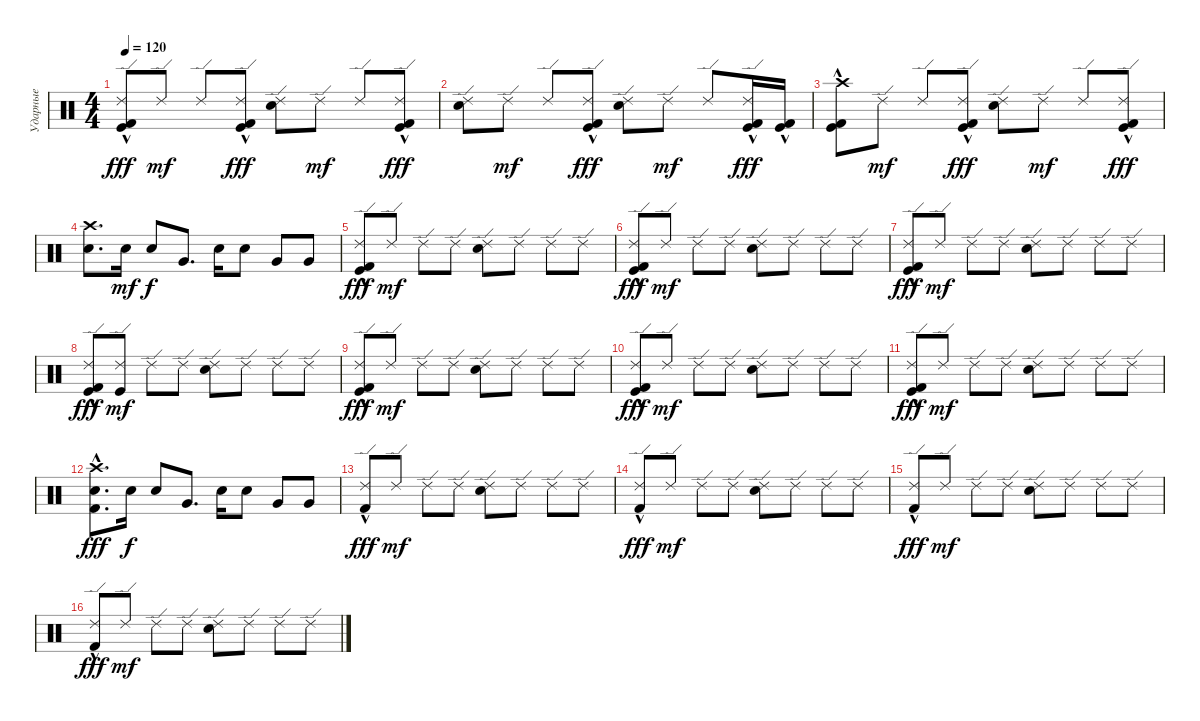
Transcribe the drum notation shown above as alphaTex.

\track ("Ударные" "Ударные") {instrument percussion}
\staff {score}
\articulation defaults
\ts (4 4)
\tempo 120
\clef neutral
\ks c
("Ride (edge) 2" "Kick (hit)"{hac} "Kick (hit) 2"{hac}).8{dy fff} "Ride (edge) 2".8{dy mf} "Ride (edge) 2".8 ("Ride (edge) 2" "Kick (hit)"{hac} "Kick (hit) 2"{hac}).8{dy fff} ("Ride (edge) 2" "Electric Snare (hit)").8 "Ride (edge) 2".8{dy mf} "Ride (edge) 2".8 ("Ride (edge) 2" "Kick (hit)"{hac} "Kick (hit) 2"{hac}).8{dy fff} |
("Ride (edge) 2" "Electric Snare (hit)").8 "Ride (edge) 2".8{dy mf} "Ride (edge) 2".8 ("Ride (edge) 2" "Kick (hit)"{hac} "Kick (hit) 2"{hac}).8{dy fff} ("Ride (edge) 2" "Electric Snare (hit)").8 "Ride (edge) 2".8{dy mf} "Ride (edge) 2".8 ("Ride (edge) 2" "Kick (hit)"{hac} "Kick (hit) 2"{hac}).16{dy fff} ("Kick (hit)"{hac} "Kick (hit) 2"{hac}).16 |
("Crash high (hit)" "Kick (hit)"{hac} "Kick (hit) 2"{hac}).8 "Ride (edge) 2".8{dy mf} "Ride (edge) 2".8 ("Ride (edge) 2" "Kick (hit)"{hac} "Kick (hit) 2"{hac}).8{dy fff} ("Ride (edge) 2" "Electric Snare (hit)").8 "Ride (edge) 2".8{dy mf} "Ride (edge) 2".8 ("Ride (edge) 2" "Kick (hit)"{hac} "Kick (hit) 2"{hac}).8{dy fff} |
("Crash high (hit)" "Electric Snare (hit)").8{d} "Electric Snare (hit)".16{dy mf} "Electric Snare (hit)".8{dy f} "Very Low Tom (hit)".8{d} "Electric Snare (hit)".16 "Electric Snare (hit)".8 "Very Low Tom (hit)".8 "Very Low Tom (hit)".8 |
("Ride (edge) 2" "Kick (hit)"{hac} "Kick (hit) 2"{hac}).8{dy fff} "Ride (edge) 2".8{dy mf} "Ride (edge) 2".8 "Ride (edge) 2".8 ("Ride (edge) 2" "Electric Snare (hit)").8 "Ride (edge) 2".8 "Ride (edge) 2".8 "Ride (edge) 2".8 |
("Ride (edge) 2" "Kick (hit)"{hac} "Kick (hit) 2"{hac}).8{dy fff} "Ride (edge) 2".8{dy mf} "Ride (edge) 2".8 "Ride (edge) 2".8 ("Ride (edge) 2" "Electric Snare (hit)").8 "Ride (edge) 2".8 "Ride (edge) 2".8 "Ride (edge) 2".8 |
("Ride (edge) 2" "Kick (hit)"{hac} "Kick (hit) 2"{hac}).8{dy fff} "Ride (edge) 2".8{dy mf} "Ride (edge) 2".8 "Ride (edge) 2".8 ("Ride (edge) 2" "Electric Snare (hit)").8 "Ride (edge) 2".8 "Ride (edge) 2".8 "Ride (edge) 2".8 |
("Ride (edge) 2" "Kick (hit)"{hac} "Kick (hit) 2"{hac}).8{dy fff} ("Ride (edge) 2" "Kick (hit)").8{dy mf} "Ride (edge) 2".8 "Ride (edge) 2".8 ("Ride (edge) 2" "Electric Snare (hit)").8 "Ride (edge) 2".8 "Ride (edge) 2".8 "Ride (edge) 2".8 |
("Ride (edge) 2" "Kick (hit)"{hac} "Kick (hit) 2"{hac}).8{dy fff} "Ride (edge) 2".8{dy mf} "Ride (edge) 2".8 "Ride (edge) 2".8 ("Ride (edge) 2" "Electric Snare (hit)").8 "Ride (edge) 2".8 "Ride (edge) 2".8 "Ride (edge) 2".8 |
("Ride (edge) 2" "Kick (hit)"{hac} "Kick (hit) 2"{hac}).8{dy fff} "Ride (edge) 2".8{dy mf} "Ride (edge) 2".8 "Ride (edge) 2".8 ("Ride (edge) 2" "Electric Snare (hit)").8 "Ride (edge) 2".8 "Ride (edge) 2".8 "Ride (edge) 2".8 |
("Ride (edge) 2" "Kick (hit)"{hac} "Kick (hit) 2"{hac}).8{dy fff} "Ride (edge) 2".8{dy mf} "Ride (edge) 2".8 "Ride (edge) 2".8 ("Ride (edge) 2" "Electric Snare (hit)").8 "Ride (edge) 2".8 "Ride (edge) 2".8 "Ride (edge) 2".8 |
("Crash high (hit)" "Electric Snare (hit)" "Kick (hit) 2"{hac}).8{d dy fff} "Electric Snare (hit)".16{dy f} "Electric Snare (hit)".8 "Very Low Tom (hit)".8{d} "Electric Snare (hit)".16 "Electric Snare (hit)".8 "Very Low Tom (hit)".8 "Very Low Tom (hit)".8 |
("Ride (edge) 2" "Kick (hit) 2"{hac}).8{dy fff} "Ride (edge) 2".8{dy mf} "Ride (edge) 2".8 "Ride (edge) 2".8 ("Ride (edge) 2" "Electric Snare (hit)").8 "Ride (edge) 2".8 "Ride (edge) 2".8 "Ride (edge) 2".8 |
("Ride (edge) 2" "Kick (hit) 2"{hac}).8{dy fff} "Ride (edge) 2".8{dy mf} "Ride (edge) 2".8 "Ride (edge) 2".8 ("Ride (edge) 2" "Electric Snare (hit)").8 "Ride (edge) 2".8 "Ride (edge) 2".8 "Ride (edge) 2".8 |
("Ride (edge) 2" "Kick (hit) 2"{hac}).8{dy fff} "Ride (edge) 2".8{dy mf} "Ride (edge) 2".8 "Ride (edge) 2".8 ("Ride (edge) 2" "Electric Snare (hit)").8 "Ride (edge) 2".8 "Ride (edge) 2".8 "Ride (edge) 2".8 |
("Ride (edge) 2" "Kick (hit) 2"{hac}).8{dy fff} "Ride (edge) 2".8{dy mf} "Ride (edge) 2".8 "Ride (edge) 2".8 ("Ride (edge) 2" "Electric Snare (hit)").8 "Ride (edge) 2".8 "Ride (edge) 2".8 "Ride (edge) 2".8
